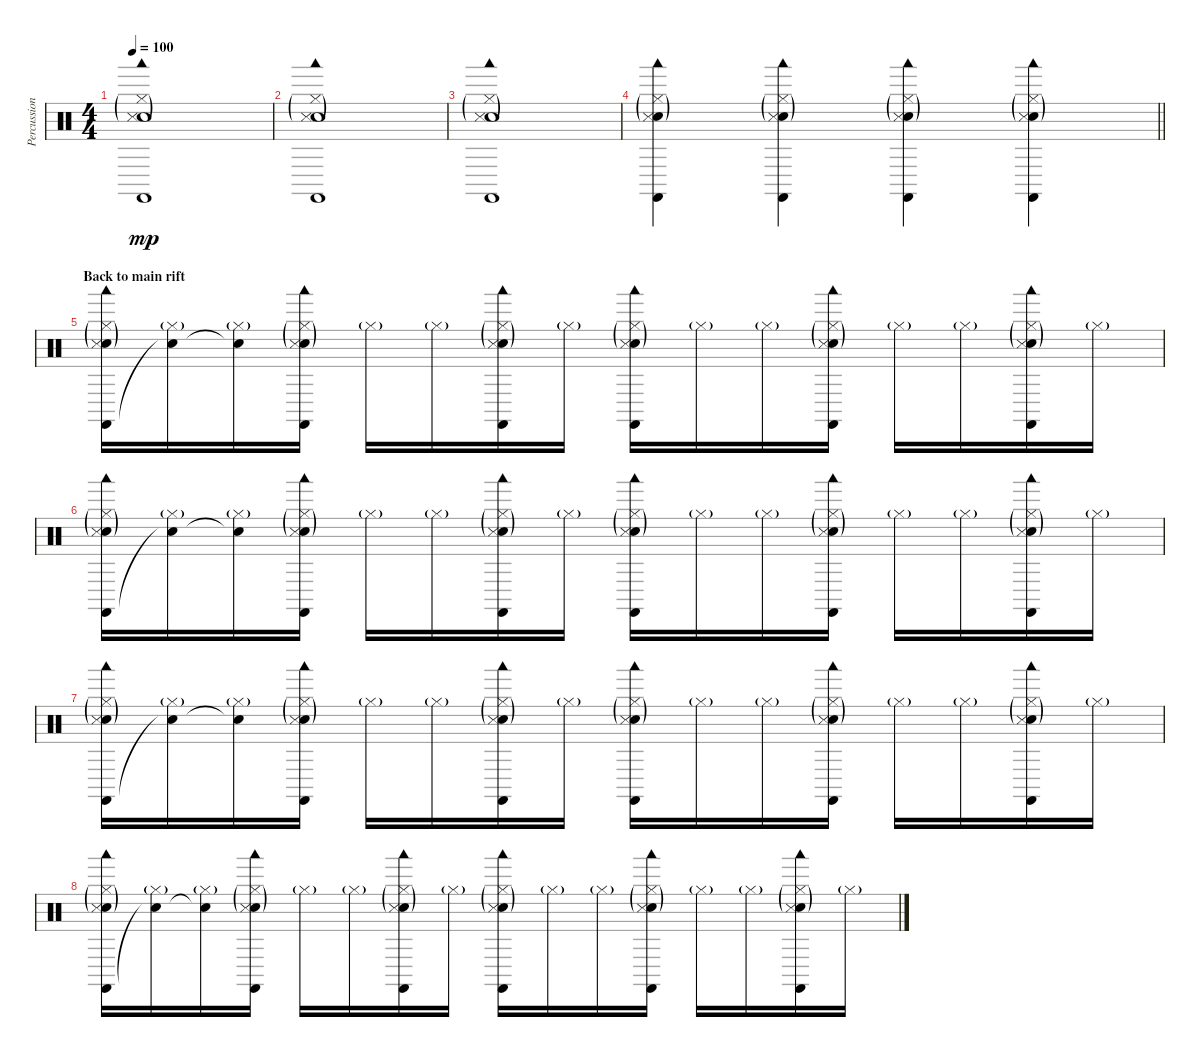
\track ("Percussion" "Percussion") {instrument percussion}
\staff {score}
\articulation defaults
\ts (4 4)
\tempo 100
\clef neutral
\ks c
("Hi-Hat (closed)"{g} "Castanets (hit)" "Woodblock low (hit)" "Electric Snare (hit)"{g} "Metronome (hit)"{g}).1{dy mp} |
("Hi-Hat (closed)"{g} "Castanets (hit)" "Woodblock low (hit)" "Electric Snare (hit)"{g} "Metronome (hit)"{g}).1 |
("Hi-Hat (closed)"{g} "Castanets (hit)" "Woodblock low (hit)" "Electric Snare (hit)"{g} "Metronome (hit)"{g}).1 |
\barLineRight lightlight
("Hi-Hat (closed)"{g} "Castanets (hit)" "Woodblock low (hit)" "Electric Snare (hit)"{g} "Metronome (hit)"{g}).4 ("Hi-Hat (closed)"{g} "Castanets (hit)" "Woodblock low (hit)" "Electric Snare (hit)"{g} "Metronome (hit)"{g}).4 ("Hi-Hat (closed)"{g} "Castanets (hit)" "Woodblock low (hit)" "Electric Snare (hit)"{g} "Metronome (hit)"{g}).4 ("Hi-Hat (closed)"{g} "Castanets (hit)" "Woodblock low (hit)" "Electric Snare (hit)"{g} "Metronome (hit)"{g}).4 |
\section ("" "Back to main rift")
("Hi-Hat (closed)"{g} "Castanets (hit)" "Woodblock low (hit)" "Electric Snare (hit)"{g} "Metronome (hit)"{g}).16 ("Hi-Hat (closed)"{g} "Snare (hit)"{t}).16 ("Hi-Hat (closed)"{g} "Snare (hit)"{t}).16 ("Hi-Hat (closed)"{g} "Castanets (hit)" "Woodblock low (hit)" "Electric Snare (hit)"{g} "Metronome (hit)"{g}).16 "Hi-Hat (closed)"{g}.16 "Hi-Hat (closed)"{g}.16 ("Hi-Hat (closed)"{g} "Castanets (hit)" "Woodblock low (hit)" "Electric Snare (hit)"{g} "Metronome (hit)"{g}).16 "Hi-Hat (closed)"{g}.16 ("Hi-Hat (closed)"{g} "Castanets (hit)" "Woodblock low (hit)" "Electric Snare (hit)"{g} "Metronome (hit)"{g}).16 "Hi-Hat (closed)"{g}.16 "Hi-Hat (closed)"{g}.16 ("Hi-Hat (closed)"{g} "Castanets (hit)" "Woodblock low (hit)" "Electric Snare (hit)"{g} "Metronome (hit)"{g}).16 "Hi-Hat (closed)"{g}.16 "Hi-Hat (closed)"{g}.16 ("Hi-Hat (closed)"{g} "Castanets (hit)" "Woodblock low (hit)" "Electric Snare (hit)"{g} "Metronome (hit)"{g}).16 "Hi-Hat (closed)"{g}.16 |
("Hi-Hat (closed)"{g} "Castanets (hit)" "Woodblock low (hit)" "Electric Snare (hit)"{g} "Metronome (hit)"{g}).16 ("Hi-Hat (closed)"{g} "Snare (hit)"{t}).16 ("Hi-Hat (closed)"{g} "Snare (hit)"{t}).16 ("Hi-Hat (closed)"{g} "Castanets (hit)" "Woodblock low (hit)" "Electric Snare (hit)"{g} "Metronome (hit)"{g}).16 "Hi-Hat (closed)"{g}.16 "Hi-Hat (closed)"{g}.16 ("Hi-Hat (closed)"{g} "Castanets (hit)" "Woodblock low (hit)" "Electric Snare (hit)"{g} "Metronome (hit)"{g}).16 "Hi-Hat (closed)"{g}.16 ("Hi-Hat (closed)"{g} "Castanets (hit)" "Woodblock low (hit)" "Electric Snare (hit)"{g} "Metronome (hit)"{g}).16 "Hi-Hat (closed)"{g}.16 "Hi-Hat (closed)"{g}.16 ("Hi-Hat (closed)"{g} "Castanets (hit)" "Woodblock low (hit)" "Electric Snare (hit)"{g} "Metronome (hit)"{g}).16 "Hi-Hat (closed)"{g}.16 "Hi-Hat (closed)"{g}.16 ("Hi-Hat (closed)"{g} "Castanets (hit)" "Woodblock low (hit)" "Electric Snare (hit)"{g} "Metronome (hit)"{g}).16 "Hi-Hat (closed)"{g}.16 |
("Hi-Hat (closed)"{g} "Castanets (hit)" "Woodblock low (hit)" "Electric Snare (hit)"{g} "Metronome (hit)"{g}).16 ("Hi-Hat (closed)"{g} "Snare (hit)"{t}).16 ("Hi-Hat (closed)"{g} "Snare (hit)"{t}).16 ("Hi-Hat (closed)"{g} "Castanets (hit)" "Woodblock low (hit)" "Electric Snare (hit)"{g} "Metronome (hit)"{g}).16 "Hi-Hat (closed)"{g}.16 "Hi-Hat (closed)"{g}.16 ("Hi-Hat (closed)"{g} "Castanets (hit)" "Woodblock low (hit)" "Electric Snare (hit)"{g} "Metronome (hit)"{g}).16 "Hi-Hat (closed)"{g}.16 ("Hi-Hat (closed)"{g} "Castanets (hit)" "Woodblock low (hit)" "Electric Snare (hit)"{g} "Metronome (hit)"{g}).16 "Hi-Hat (closed)"{g}.16 "Hi-Hat (closed)"{g}.16 ("Hi-Hat (closed)"{g} "Castanets (hit)" "Woodblock low (hit)" "Electric Snare (hit)"{g} "Metronome (hit)"{g}).16 "Hi-Hat (closed)"{g}.16 "Hi-Hat (closed)"{g}.16 ("Hi-Hat (closed)"{g} "Castanets (hit)" "Woodblock low (hit)" "Electric Snare (hit)"{g} "Metronome (hit)"{g}).16 "Hi-Hat (closed)"{g}.16 |
("Hi-Hat (closed)"{g} "Castanets (hit)" "Woodblock low (hit)" "Electric Snare (hit)"{g} "Metronome (hit)"{g}).16 ("Hi-Hat (closed)"{g} "Snare (hit)"{t}).16 ("Hi-Hat (closed)"{g} "Snare (hit)"{t}).16 ("Hi-Hat (closed)"{g} "Castanets (hit)" "Woodblock low (hit)" "Electric Snare (hit)"{g} "Metronome (hit)"{g}).16 "Hi-Hat (closed)"{g}.16 "Hi-Hat (closed)"{g}.16 ("Hi-Hat (closed)"{g} "Castanets (hit)" "Woodblock low (hit)" "Electric Snare (hit)"{g} "Metronome (hit)"{g}).16 "Hi-Hat (closed)"{g}.16 ("Hi-Hat (closed)"{g} "Castanets (hit)" "Woodblock low (hit)" "Electric Snare (hit)"{g} "Metronome (hit)"{g}).16 "Hi-Hat (closed)"{g}.16 "Hi-Hat (closed)"{g}.16 ("Hi-Hat (closed)"{g} "Castanets (hit)" "Woodblock low (hit)" "Electric Snare (hit)"{g} "Metronome (hit)"{g}).16 "Hi-Hat (closed)"{g}.16 "Hi-Hat (closed)"{g}.16 ("Hi-Hat (closed)"{g} "Castanets (hit)" "Woodblock low (hit)" "Electric Snare (hit)"{g} "Metronome (hit)"{g}).16 "Hi-Hat (closed)"{g}.16
